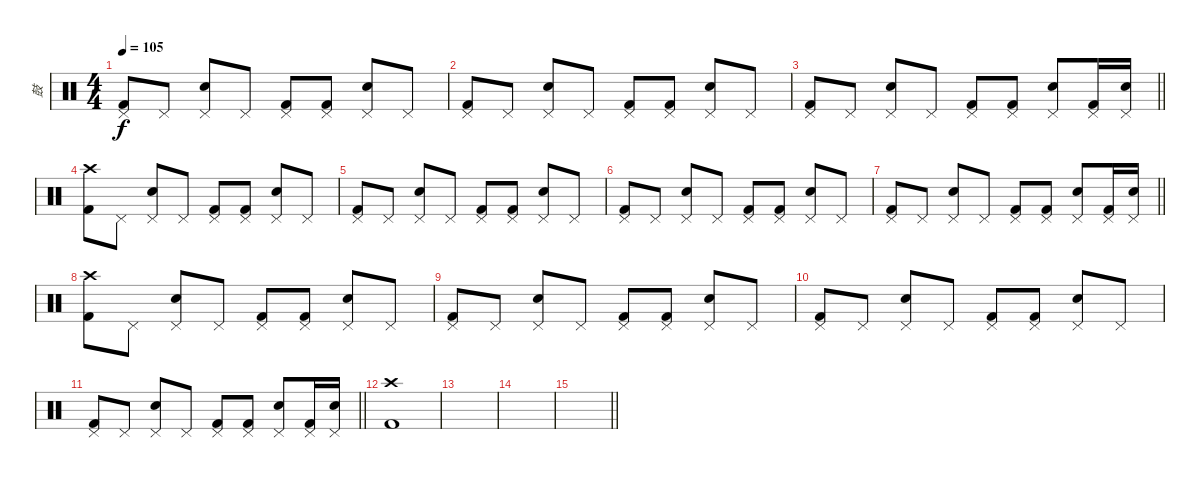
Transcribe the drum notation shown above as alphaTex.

\track ("鼓" "鼓") {instrument percussion}
\staff {score}
\articulation defaults
\ts (4 4)
\tempo 105
\clef neutral
\ks c
("Pedal Hi-Hat (hit)" "Kick (hit) 2").8{dy f} "Pedal Hi-Hat (hit)".8 ("Pedal Hi-Hat (hit)" "Electric Snare (hit)").8 "Pedal Hi-Hat (hit)".8 ("Pedal Hi-Hat (hit)" "Kick (hit) 2").8 ("Pedal Hi-Hat (hit)" "Kick (hit) 2").8 ("Pedal Hi-Hat (hit)" "Electric Snare (hit)").8 "Pedal Hi-Hat (hit)".8 |
("Pedal Hi-Hat (hit)" "Kick (hit) 2").8 "Pedal Hi-Hat (hit)".8 ("Pedal Hi-Hat (hit)" "Electric Snare (hit)").8 "Pedal Hi-Hat (hit)".8 ("Pedal Hi-Hat (hit)" "Kick (hit) 2").8 ("Pedal Hi-Hat (hit)" "Kick (hit) 2").8 ("Pedal Hi-Hat (hit)" "Electric Snare (hit)").8 "Pedal Hi-Hat (hit)".8 |
\barLineRight lightlight
("Pedal Hi-Hat (hit)" "Kick (hit) 2").8 "Pedal Hi-Hat (hit)".8 ("Pedal Hi-Hat (hit)" "Electric Snare (hit)").8 "Pedal Hi-Hat (hit)".8 ("Pedal Hi-Hat (hit)" "Kick (hit) 2").8 ("Pedal Hi-Hat (hit)" "Kick (hit) 2").8 ("Pedal Hi-Hat (hit)" "Electric Snare (hit)").8 ("Pedal Hi-Hat (hit)" "Kick (hit) 2").16 ("Pedal Hi-Hat (hit)" "Electric Snare (hit)").16 |
("Crash high (hit)" "Kick (hit) 2").8 "Pedal Hi-Hat (hit)".8 ("Pedal Hi-Hat (hit)" "Electric Snare (hit)").8 "Pedal Hi-Hat (hit)".8 ("Pedal Hi-Hat (hit)" "Kick (hit) 2").8 ("Pedal Hi-Hat (hit)" "Kick (hit) 2").8 ("Pedal Hi-Hat (hit)" "Electric Snare (hit)").8 "Pedal Hi-Hat (hit)".8 |
("Pedal Hi-Hat (hit)" "Kick (hit) 2").8 "Pedal Hi-Hat (hit)".8 ("Pedal Hi-Hat (hit)" "Electric Snare (hit)").8 "Pedal Hi-Hat (hit)".8 ("Pedal Hi-Hat (hit)" "Kick (hit) 2").8 ("Pedal Hi-Hat (hit)" "Kick (hit) 2").8 ("Pedal Hi-Hat (hit)" "Electric Snare (hit)").8 "Pedal Hi-Hat (hit)".8 |
("Pedal Hi-Hat (hit)" "Kick (hit) 2").8 "Pedal Hi-Hat (hit)".8 ("Pedal Hi-Hat (hit)" "Electric Snare (hit)").8 "Pedal Hi-Hat (hit)".8 ("Pedal Hi-Hat (hit)" "Kick (hit) 2").8 ("Pedal Hi-Hat (hit)" "Kick (hit) 2").8 ("Pedal Hi-Hat (hit)" "Electric Snare (hit)").8 "Pedal Hi-Hat (hit)".8 |
\barLineRight lightlight
("Pedal Hi-Hat (hit)" "Kick (hit) 2").8 "Pedal Hi-Hat (hit)".8 ("Pedal Hi-Hat (hit)" "Electric Snare (hit)").8 "Pedal Hi-Hat (hit)".8 ("Pedal Hi-Hat (hit)" "Kick (hit) 2").8 ("Pedal Hi-Hat (hit)" "Kick (hit) 2").8 ("Pedal Hi-Hat (hit)" "Electric Snare (hit)").8 ("Pedal Hi-Hat (hit)" "Kick (hit) 2").16 ("Pedal Hi-Hat (hit)" "Electric Snare (hit)").16 |
("Crash high (hit)" "Kick (hit) 2").8 "Pedal Hi-Hat (hit)".8 ("Pedal Hi-Hat (hit)" "Electric Snare (hit)").8 "Pedal Hi-Hat (hit)".8 ("Pedal Hi-Hat (hit)" "Kick (hit) 2").8 ("Pedal Hi-Hat (hit)" "Kick (hit) 2").8 ("Pedal Hi-Hat (hit)" "Electric Snare (hit)").8 "Pedal Hi-Hat (hit)".8 |
("Pedal Hi-Hat (hit)" "Kick (hit) 2").8 "Pedal Hi-Hat (hit)".8 ("Pedal Hi-Hat (hit)" "Electric Snare (hit)").8 "Pedal Hi-Hat (hit)".8 ("Pedal Hi-Hat (hit)" "Kick (hit) 2").8 ("Pedal Hi-Hat (hit)" "Kick (hit) 2").8 ("Pedal Hi-Hat (hit)" "Electric Snare (hit)").8 "Pedal Hi-Hat (hit)".8 |
("Pedal Hi-Hat (hit)" "Kick (hit) 2").8 "Pedal Hi-Hat (hit)".8 ("Pedal Hi-Hat (hit)" "Electric Snare (hit)").8 "Pedal Hi-Hat (hit)".8 ("Pedal Hi-Hat (hit)" "Kick (hit) 2").8 ("Pedal Hi-Hat (hit)" "Kick (hit) 2").8 ("Pedal Hi-Hat (hit)" "Electric Snare (hit)").8 "Pedal Hi-Hat (hit)".8 |
\barLineRight lightlight
("Pedal Hi-Hat (hit)" "Kick (hit) 2").8 "Pedal Hi-Hat (hit)".8 ("Pedal Hi-Hat (hit)" "Electric Snare (hit)").8 "Pedal Hi-Hat (hit)".8 ("Pedal Hi-Hat (hit)" "Kick (hit) 2").8 ("Pedal Hi-Hat (hit)" "Kick (hit) 2").8 ("Pedal Hi-Hat (hit)" "Electric Snare (hit)").8 ("Pedal Hi-Hat (hit)" "Kick (hit) 2").16 ("Pedal Hi-Hat (hit)" "Electric Snare (hit)").16 |
("Crash high (hit)" "Kick (hit) 2").1 |
|
|
\barLineRight lightlight
